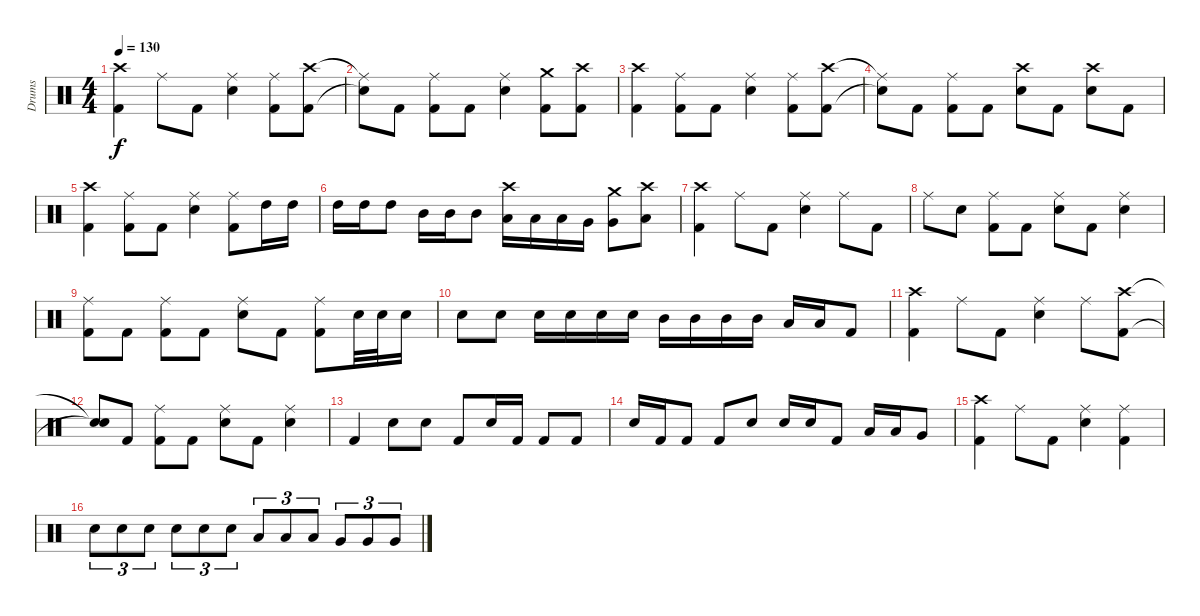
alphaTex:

\track ("Drums" "Drums") {instrument percussion}
\staff {score}
\articulation defaults
\ts (4 4)
\tempo 130
\clef neutral
\ks c
("Crash high (hit)" "Kick (hit) 2").4{dy f} "Ride (middle)".8 "Kick (hit) 2".8 ("Ride (middle)" "Electric Snare (hit)").4 ("Ride (middle)" "Kick (hit) 2").8 ("Crash high (hit)" "Kick (hit) 2").8 |
("Ride (middle)"{t} "Snare (hit)"{t}).8 "Kick (hit) 2".8 ("Ride (middle)" "Kick (hit) 2").8 "Kick (hit) 2".8 ("Ride (middle)" "Electric Snare (hit)").4 ("Crash medium (hit)" "Kick (hit) 2").8 ("Crash high (hit)" "Kick (hit) 2").8 |
("Crash high (hit)" "Kick (hit) 2").4 ("Ride (middle)" "Kick (hit) 2").8 "Kick (hit) 2".8 ("Ride (middle)" "Electric Snare (hit)").4 ("Ride (middle)" "Kick (hit) 2").8 ("Crash high (hit)" "Kick (hit) 2").8 |
("Ride (middle)"{t} "Snare (hit)"{t}).8 "Kick (hit) 2".8 ("Ride (middle)" "Kick (hit) 2").8 "Kick (hit) 2".8 ("Crash high (hit)" "Electric Snare (hit)").8 "Kick (hit) 2".8 ("Crash high (hit)" "Electric Snare (hit)").8 "Kick (hit) 2".8 |
("Crash high (hit)" "Kick (hit) 2").4 ("Ride (middle)" "Kick (hit) 2").8 "Kick (hit) 2".8 ("Ride (middle)" "Electric Snare (hit)").4 ("Ride (middle)" "Kick (hit) 2").8 "High Tom (hit)".16 "High Tom (hit)".16 |
"High Tom (hit)".16 "High Tom (hit)".16 "High Tom (hit)".8 "Mid Tom (hit)".16 "Mid Tom (hit)".16 "Mid Tom (hit)".8 ("Crash high (hit)" "Low Tom (hit)").16 "Low Tom (hit)".16 "Low Tom (hit)".16 "Very Low Tom (hit)".16 ("Crash medium (hit)" "Very Low Tom (hit)").8 ("Crash high (hit)" "Low Floor Tom (hit)").8 |
("Crash high (hit)" "Kick (hit) 2").4 "Ride (middle)".8 "Kick (hit) 2".8 ("Ride (middle)" "Electric Snare (hit)").4 "Ride (middle)".8 "Kick (hit) 2".8 |
"Ride (middle)".8 "Electric Snare (hit)".8 ("Ride (middle)" "Kick (hit) 2").8 "Kick (hit) 2".8 ("Ride (middle)" "Electric Snare (hit)").8 "Kick (hit) 2".8 ("Ride (middle)" "Electric Snare (hit)").4 |
("Ride (middle)" "Kick (hit) 2").8 "Kick (hit) 2".8 ("Ride (middle)" "Kick (hit) 2").8 "Kick (hit) 2".8 ("Ride (middle)" "Electric Snare (hit)").8 "Kick (hit) 2".8 ("Ride (middle)" "Kick (hit) 2").8 "Electric Snare (hit)".32 "Electric Snare (hit)".32 "Electric Snare (hit)".16 |
"Electric Snare (hit)".8 "Electric Snare (hit)".8 "Electric Snare (hit)".16 "Electric Snare (hit)".16 "Electric Snare (hit)".16 "Electric Snare (hit)".16 "Mid Tom (hit)".16 "Mid Tom (hit)".16 "Mid Tom (hit)".16 "Mid Tom (hit)".16 "Low Tom (hit)".16 "Low Tom (hit)".16 "Kick (hit) 2".8 |
("Crash high (hit)" "Kick (hit) 2").4 "Ride (middle)".8 "Kick (hit) 2".8 ("Ride (middle)" "Electric Snare (hit)").4 "Ride (middle)".8 ("Crash high (hit)" "Kick (hit) 2").8 |
("Snare (hit)"{t} "Snare (hit)"{t}).8 "Kick (hit) 2".8 ("Ride (middle)" "Kick (hit) 2").8 "Kick (hit) 2".8 ("Ride (middle)" "Electric Snare (hit)").8 "Kick (hit) 2".8 ("Ride (middle)" "Electric Snare (hit)").4 |
"Kick (hit) 2".4 "Electric Snare (hit)".8 "Electric Snare (hit)".8 "Kick (hit) 2".8 "Electric Snare (hit)".16 "Kick (hit) 2".16 "Kick (hit) 2".8 "Kick (hit) 2".8 |
"Electric Snare (hit)".16 "Kick (hit) 2".16 "Kick (hit) 2".8 "Kick (hit) 2".8 "Electric Snare (hit)".8 "Electric Snare (hit)".16 "Electric Snare (hit)".16 "Kick (hit) 2".8 "Low Tom (hit)".16 "Low Tom (hit)".16 "Very Low Tom (hit)".8 |
("Crash high (hit)" "Kick (hit) 2").4 "Ride (middle)".8 "Kick (hit) 2".8 ("Ride (middle)" "Electric Snare (hit)").4 ("Ride (middle)" "Kick (hit) 2").4 |
"Electric Snare (hit)".8{tu (3 2)} "Electric Snare (hit)".8{tu (3 2)} "Electric Snare (hit)".8{tu (3 2)} "Electric Snare (hit)".8{tu (3 2)} "Electric Snare (hit)".8{tu (3 2)} "Electric Snare (hit)".8{tu (3 2)} "Low Tom (hit)".8{tu (3 2)} "Low Tom (hit)".8{tu (3 2)} "Low Tom (hit)".8{tu (3 2)} "Very Low Tom (hit)".8{tu (3 2)} "Very Low Tom (hit)".8{tu (3 2)} "Very Low Tom (hit)".8{tu (3 2)}
